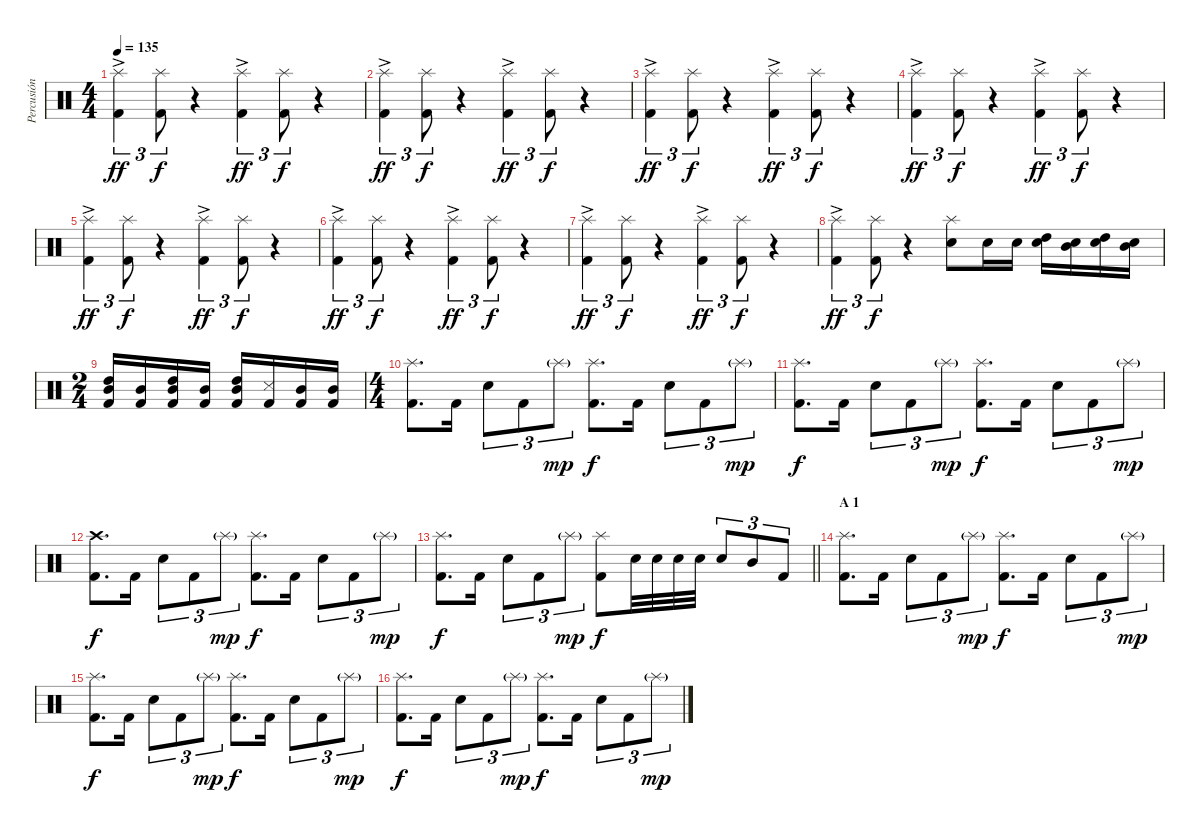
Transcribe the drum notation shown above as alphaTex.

\track ("Percusión" "Percusión") {instrument percussion}
\staff {score}
\articulation defaults
\ts (4 4)
\tempo 135
\clef neutral
\ks c
("Splash (hit)"{ac} "Kick (hit) 2"{ac}).4{tu (3 2) dy ff} ("Splash (hit)" "Kick (hit) 2").8{tu (3 2) dy f} r.4 ("Splash (hit)"{ac} "Kick (hit) 2"{ac}).4{tu (3 2) dy ff} ("Splash (hit)" "Kick (hit) 2").8{tu (3 2) dy f} r.4 |
("Splash (hit)"{ac} "Kick (hit) 2"{ac}).4{tu (3 2) dy ff} ("Splash (hit)" "Kick (hit) 2").8{tu (3 2) dy f} r.4 ("Splash (hit)"{ac} "Kick (hit) 2"{ac}).4{tu (3 2) dy ff} ("Splash (hit)" "Kick (hit) 2").8{tu (3 2) dy f} r.4 |
("Splash (hit)"{ac} "Kick (hit) 2"{ac}).4{tu (3 2) dy ff} ("Splash (hit)" "Kick (hit) 2").8{tu (3 2) dy f} r.4 ("Splash (hit)"{ac} "Kick (hit) 2"{ac}).4{tu (3 2) dy ff} ("Splash (hit)" "Kick (hit) 2").8{tu (3 2) dy f} r.4 |
("Splash (hit)"{ac} "Kick (hit) 2"{ac}).4{tu (3 2) dy ff} ("Splash (hit)" "Kick (hit) 2").8{tu (3 2) dy f} r.4 ("Splash (hit)"{ac} "Kick (hit) 2"{ac}).4{tu (3 2) dy ff} ("Splash (hit)" "Kick (hit) 2").8{tu (3 2) dy f} r.4 |
("Splash (hit)"{ac} "Kick (hit) 2"{ac}).4{tu (3 2) dy ff} ("Splash (hit)" "Kick (hit) 2").8{tu (3 2) dy f} r.4 ("Splash (hit)"{ac} "Kick (hit) 2"{ac}).4{tu (3 2) dy ff} ("Splash (hit)" "Kick (hit) 2").8{tu (3 2) dy f} r.4 |
("Splash (hit)"{ac} "Kick (hit) 2"{ac}).4{tu (3 2) dy ff} ("Splash (hit)" "Kick (hit) 2").8{tu (3 2) dy f} r.4 ("Splash (hit)"{ac} "Kick (hit) 2"{ac}).4{tu (3 2) dy ff} ("Splash (hit)" "Kick (hit) 2").8{tu (3 2) dy f} r.4 |
("Splash (hit)"{ac} "Kick (hit) 2"{ac}).4{tu (3 2) dy ff} ("Splash (hit)" "Kick (hit) 2").8{tu (3 2) dy f} r.4 ("Splash (hit)"{ac} "Kick (hit) 2"{ac}).4{tu (3 2) dy ff} ("Splash (hit)" "Kick (hit) 2").8{tu (3 2) dy f} r.4 |
("Splash (hit)"{ac} "Kick (hit) 2"{ac}).4{tu (3 2) dy ff} ("Splash (hit)" "Kick (hit) 2").8{tu (3 2) dy f} r.4 ("Splash (hit)" "Snare (hit) 2").8 "Snare (hit) 2".16 "Snare (hit) 2".16 ("High Tom (hit)" "Snare (hit) 2").16 ("Mid Tom (hit)" "Snare (hit) 2").16 ("High Tom (hit)" "Snare (hit) 2").16 ("Mid Tom (hit)" "Snare (hit) 2").16 |
\ts (2 4)
("High Tom (hit)" "Mid Tom (hit)" "Kick (hit) 2").16 ("Mid Tom (hit)" "Kick (hit) 2").16 ("High Tom (hit)" "Mid Tom (hit)" "Kick (hit) 2").16 ("Mid Tom (hit)" "Kick (hit) 2").16 ("High Tom (hit)" "Mid Tom (hit)" "Kick (hit) 2").16 ("Snare (side stick) 3" "Kick (hit) 2").16 ("Mid Tom (hit)" "Kick (hit) 2").16 ("Mid Tom (hit)" "Kick (hit) 2").16 |
\ts (4 4)
("Splash (hit)" "Kick (hit) 2").8{d} "Kick (hit) 2".16 "Snare (hit) 2".8{tu (3 2)} "Kick (hit) 2".8{tu (3 2)} "Splash (hit)"{g}.8{tu (3 2) dy mp} ("Splash (hit)" "Kick (hit) 2").8{d dy f} "Kick (hit) 2".16 "Snare (hit) 2".8{tu (3 2)} "Kick (hit) 2".8{tu (3 2)} "Splash (hit)"{g}.8{tu (3 2) dy mp} |
("Splash (hit)" "Kick (hit) 2").8{d dy f} "Kick (hit) 2".16 "Snare (hit) 2".8{tu (3 2)} "Kick (hit) 2".8{tu (3 2)} "Splash (hit)"{g}.8{tu (3 2) dy mp} ("Splash (hit)" "Kick (hit) 2").8{d dy f} "Kick (hit) 2".16 "Snare (hit) 2".8{tu (3 2)} "Kick (hit) 2".8{tu (3 2)} "Splash (hit)"{g}.8{tu (3 2) dy mp} |
("Crash high (hit)" "Kick (hit) 2").8{d dy f} "Kick (hit) 2".16 "Snare (hit) 2".8{tu (3 2)} "Kick (hit) 2".8{tu (3 2)} "Splash (hit)"{g}.8{tu (3 2) dy mp} ("Splash (hit)" "Kick (hit) 2").8{d dy f} "Kick (hit) 2".16 "Snare (hit) 2".8{tu (3 2)} "Kick (hit) 2".8{tu (3 2)} "Splash (hit)"{g}.8{tu (3 2) dy mp} |
\barLineRight lightlight
("Splash (hit)" "Kick (hit) 2").8{d dy f} "Kick (hit) 2".16 "Snare (hit) 2".8{tu (3 2)} "Kick (hit) 2".8{tu (3 2)} "Splash (hit)"{g}.8{tu (3 2) dy mp} ("Splash (hit)" "Kick (hit) 2").8{dy f} "Snare (hit) 2".32 "Snare (hit) 2".32 "Snare (hit) 2".32 "Snare (hit) 2".32 "Snare (hit) 2".8{tu (3 2)} "Mid Tom (hit)".8{tu (3 2)} "Kick (hit) 2".8{tu (3 2)} |
\section ("" "A 1")
("Splash (hit)" "Kick (hit) 2").8{d} "Kick (hit) 2".16 "Snare (hit) 2".8{tu (3 2)} "Kick (hit) 2".8{tu (3 2)} "Splash (hit)"{g}.8{tu (3 2) dy mp} ("Splash (hit)" "Kick (hit) 2").8{d dy f} "Kick (hit) 2".16 "Snare (hit) 2".8{tu (3 2)} "Kick (hit) 2".8{tu (3 2)} "Splash (hit)"{g}.8{tu (3 2) dy mp} |
("Splash (hit)" "Kick (hit) 2").8{d dy f} "Kick (hit) 2".16 "Snare (hit) 2".8{tu (3 2)} "Kick (hit) 2".8{tu (3 2)} "Splash (hit)"{g}.8{tu (3 2) dy mp} ("Splash (hit)" "Kick (hit) 2").8{d dy f} "Kick (hit) 2".16 "Snare (hit) 2".8{tu (3 2)} "Kick (hit) 2".8{tu (3 2)} "Splash (hit)"{g}.8{tu (3 2) dy mp} |
("Splash (hit)" "Kick (hit) 2").8{d dy f} "Kick (hit) 2".16 "Snare (hit) 2".8{tu (3 2)} "Kick (hit) 2".8{tu (3 2)} "Splash (hit)"{g}.8{tu (3 2) dy mp} ("Splash (hit)" "Kick (hit) 2").8{d dy f} "Kick (hit) 2".16 "Snare (hit) 2".8{tu (3 2)} "Kick (hit) 2".8{tu (3 2)} "Splash (hit)"{g}.8{tu (3 2) dy mp}
